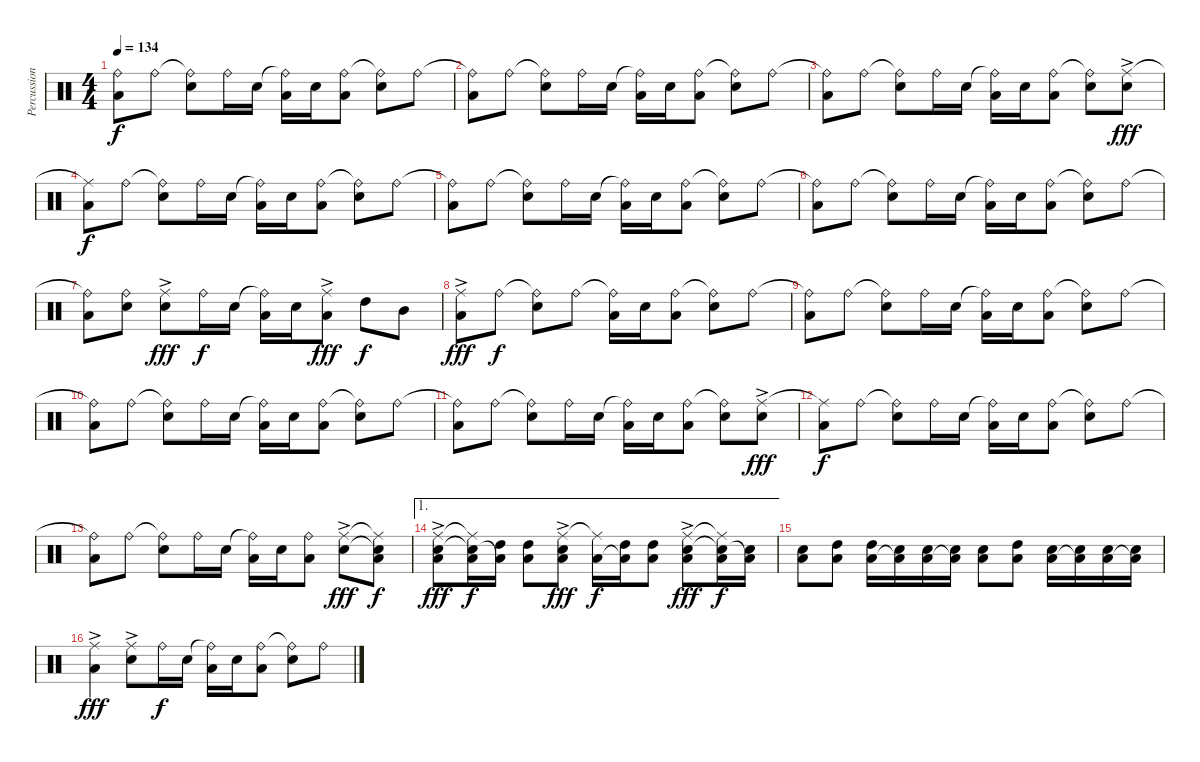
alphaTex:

\track ("Percussion" "Percussion") {instrument percussion}
\staff {score}
\articulation defaults
\ts (4 4)
\tempo 134
\clef neutral
\ks c
("Ride (bell)"{t} "Low Floor Tom (hit)").8{dy f} "Ride (bell)".8 ("Ride (bell)"{t} "Snare (hit) 2").8 "Ride (bell)".16 "Snare (hit) 2".16 ("Ride (bell)"{t} "Low Floor Tom (hit)").16 "Snare (hit) 2".16 ("Ride (bell)" "Low Floor Tom (hit)").8 ("Ride (bell)"{t} "Snare (hit) 2").8 "Ride (bell)".8 |
("Ride (bell)"{t} "Low Floor Tom (hit)").8 "Ride (bell)".8 ("Ride (bell)"{t} "Snare (hit) 2").8 "Ride (bell)".16 "Snare (hit) 2".16 ("Ride (bell)"{t} "Low Floor Tom (hit)").16 "Snare (hit) 2".16 ("Ride (bell)" "Low Floor Tom (hit)").8 ("Ride (bell)"{t} "Snare (hit) 2").8 "Ride (bell)".8 |
("Ride (bell)"{t} "Low Floor Tom (hit)").8 "Ride (bell)".8 ("Ride (bell)"{t} "Snare (hit) 2").8 "Ride (bell)".16 "Snare (hit) 2".16 ("Ride (bell)"{t} "Low Floor Tom (hit)").16 "Snare (hit) 2".16 ("Ride (bell)" "Low Floor Tom (hit)").8 ("Ride (bell)"{t} "Snare (hit) 2").8 ("Ride (middle)"{ac} "Snare (hit) 2").8{dy fff} |
("Ride (middle)"{t} "Low Floor Tom (hit)").8{dy f} "Ride (bell)".8 ("Ride (bell)"{t} "Snare (hit) 2").8 "Ride (bell)".16 "Snare (hit) 2".16 ("Ride (bell)"{t} "Low Floor Tom (hit)").16 "Snare (hit) 2".16 ("Ride (bell)" "Low Floor Tom (hit)").8 ("Ride (bell)"{t} "Snare (hit) 2").8 "Ride (bell)".8 |
("Ride (bell)"{t} "Low Floor Tom (hit)").8 "Ride (bell)".8 ("Ride (bell)"{t} "Snare (hit) 2").8 "Ride (bell)".16 "Snare (hit) 2".16 ("Ride (bell)"{t} "Low Floor Tom (hit)").16 "Snare (hit) 2".16 ("Ride (bell)" "Low Floor Tom (hit)").8 ("Ride (bell)"{t} "Snare (hit) 2").8 "Ride (bell)".8 |
("Ride (bell)"{t} "Low Floor Tom (hit)").8 "Ride (bell)".8 ("Ride (bell)"{t} "Snare (hit) 2").8 "Ride (bell)".16 "Snare (hit) 2".16 ("Ride (bell)"{t} "Low Floor Tom (hit)").16 "Snare (hit) 2".16 ("Ride (bell)" "Low Floor Tom (hit)").8 ("Ride (bell)"{t} "Snare (hit) 2").8 "Ride (bell)".8 |
("Ride (bell)"{t} "Low Floor Tom (hit)").8 ("Ride (bell)" "Snare (hit) 2").8 ("Ride (middle)"{ac} "Snare (hit) 2").8{dy fff} "Ride (bell)".16{dy f} "Snare (hit) 2".16 ("Ride (bell)"{t} "Low Floor Tom (hit)").16 "Snare (hit) 2".16 ("Ride (middle)"{ac} "Low Floor Tom (hit)").8{dy fff} "High Tom (hit)".8{dy f} "Mid Tom (hit)".8 |
("Ride (middle)"{ac} "Low Floor Tom (hit)").8{dy fff} "Ride (bell)".8{dy f} ("Ride (bell)"{t} "Snare (hit) 2").8 "Ride (bell)".8 ("Ride (bell)"{t} "Low Floor Tom (hit)").16 "Snare (hit) 2".16 ("Ride (bell)" "Low Floor Tom (hit)").8 ("Ride (bell)"{t} "Snare (hit) 2").8 "Ride (bell)".8 |
("Ride (bell)"{t} "Low Floor Tom (hit)").8 "Ride (bell)".8 ("Ride (bell)"{t} "Snare (hit) 2").8 "Ride (bell)".16 "Snare (hit) 2".16 ("Ride (bell)"{t} "Low Floor Tom (hit)").16 "Snare (hit) 2".16 ("Ride (bell)" "Low Floor Tom (hit)").8 ("Ride (bell)"{t} "Snare (hit) 2").8 "Ride (bell)".8 |
("Ride (bell)"{t} "Low Floor Tom (hit)").8 "Ride (bell)".8 ("Ride (bell)"{t} "Snare (hit) 2").8 "Ride (bell)".16 "Snare (hit) 2".16 ("Ride (bell)"{t} "Low Floor Tom (hit)").16 "Snare (hit) 2".16 ("Ride (bell)" "Low Floor Tom (hit)").8 ("Ride (bell)"{t} "Snare (hit) 2").8 "Ride (bell)".8 |
("Ride (bell)"{t} "Low Floor Tom (hit)").8 "Ride (bell)".8 ("Ride (bell)"{t} "Snare (hit) 2").8 "Ride (bell)".16 "Snare (hit) 2".16 ("Ride (bell)"{t} "Low Floor Tom (hit)").16 "Snare (hit) 2".16 ("Ride (bell)" "Low Floor Tom (hit)").8 ("Ride (bell)"{t} "Snare (hit) 2").8 ("Ride (middle)"{ac} "Snare (hit) 2").8{dy fff} |
("Ride (middle)"{t} "Low Floor Tom (hit)").8{dy f} "Ride (bell)".8 ("Ride (bell)"{t} "Snare (hit) 2").8 "Ride (bell)".16 "Snare (hit) 2".16 ("Ride (bell)"{t} "Low Floor Tom (hit)").16 "Snare (hit) 2".16 ("Ride (bell)" "Low Floor Tom (hit)").8 ("Ride (bell)"{t} "Snare (hit) 2").8 "Ride (bell)".8 |
("Ride (bell)"{t} "Low Floor Tom (hit)").8 "Ride (bell)".8 ("Ride (bell)"{t} "Snare (hit) 2").8 "Ride (bell)".16 "Snare (hit) 2".16 ("Ride (bell)"{t} "Low Floor Tom (hit)").16 "Snare (hit) 2".16 ("Ride (bell)" "Low Floor Tom (hit)").8 ("Ride (middle)"{ac} "Snare (hit) 2").8{dy fff} ("Ride (middle)"{t} "Snare (hit) 2"{t} "Low Floor Tom (hit)").8{dy f} |
\ae 1
("Ride (middle)"{ac} "Snare (hit) 2" "Low Floor Tom (hit)").8{dy fff} ("Ride (middle)"{t} "Snare (hit) 2"{t} "Low Floor Tom (hit)").16{dy f} ("High Tom (hit)" "Low Floor Tom (hit)"{t}).16 ("High Tom (hit)" "Low Floor Tom (hit)").8 ("Ride (middle)"{ac} "Snare (hit) 2" "Low Floor Tom (hit)").8{dy fff} ("Ride (middle)"{t} "Low Floor Tom (hit)").16{dy f} ("High Tom (hit)" "Low Floor Tom (hit)"{t}).16 ("High Tom (hit)" "Low Floor Tom (hit)").8 ("Ride (middle)"{ac} "Snare (hit) 2" "Low Floor Tom (hit)").8{dy fff} ("Ride (middle)"{t} "Snare (hit) 2"{t} "Low Floor Tom (hit)").16{dy f} ("Snare (hit) 2" "Low Floor Tom (hit)"{t}).16 |
("Snare (hit) 2" "Low Floor Tom (hit)").8 ("High Tom (hit)" "Low Floor Tom (hit)").8 ("High Tom (hit)" "Low Floor Tom (hit)").16 ("Snare (hit) 2" "Low Floor Tom (hit)"{t}).16 ("Snare (hit) 2" "Low Floor Tom (hit)").16 ("Snare (hit) 2" "Low Floor Tom (hit)"{t}).16 ("Snare (hit) 2" "Low Floor Tom (hit)").8 ("High Tom (hit)" "Low Floor Tom (hit)").8 ("Snare (hit) 2" "Low Floor Tom (hit)").16 ("Snare (hit) 2" "Low Floor Tom (hit)"{t}).16 ("Snare (hit) 2" "Low Floor Tom (hit)").16 ("Snare (hit) 2" "Low Floor Tom (hit)"{t}).16 |
("Ride (middle)"{ac} "Low Floor Tom (hit)").4{dy fff} ("Ride (middle)"{ac} "Snare (hit) 2").8 "Ride (bell)".16{dy f} "Snare (hit) 2".16 ("Ride (bell)"{t} "Low Floor Tom (hit)").16 "Snare (hit) 2".16 ("Ride (bell)" "Low Floor Tom (hit)").8 ("Ride (bell)"{t} "Snare (hit) 2").8 "Ride (bell)".8
